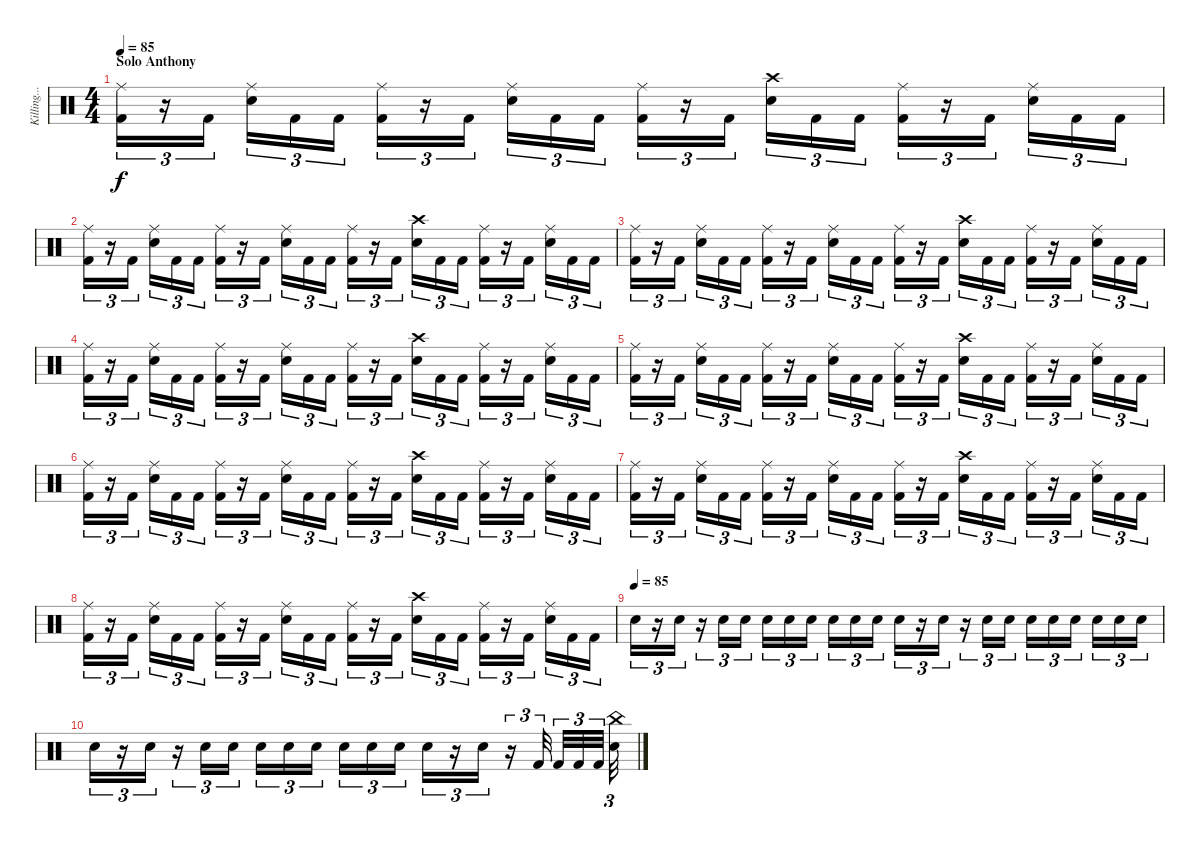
\track ("Killing.....Is His Business" "Killing...") {instrument percussion}
\staff {score}
\articulation defaults
\ts (4 4)
\section ("" "Solo Anthony")
\tempo 85
\clef neutral
\ks c
("Ride (middle)" "Kick (hit) 2").16{tu (3 2) dy f} r.16{tu (3 2)} "Kick (hit) 2".16{tu (3 2)} ("Ride (middle)" "Snare (hit) 2").16{tu (3 2)} "Kick (hit) 2".16{tu (3 2)} "Kick (hit) 2".16{tu (3 2)} ("Ride (middle)" "Kick (hit) 2").16{tu (3 2)} r.16{tu (3 2)} "Kick (hit) 2".16{tu (3 2)} ("Ride (middle)" "Snare (hit) 2").16{tu (3 2)} "Kick (hit) 2".16{tu (3 2)} "Kick (hit) 2".16{tu (3 2)} ("Ride (middle)" "Kick (hit) 2").16{tu (3 2)} r.16{tu (3 2)} "Kick (hit) 2".16{tu (3 2)} ("Crash high (hit)" "Snare (hit) 2").16{tu (3 2)} "Kick (hit) 2".16{tu (3 2)} "Kick (hit) 2".16{tu (3 2)} ("Ride (middle)" "Kick (hit) 2").16{tu (3 2)} r.16{tu (3 2)} "Kick (hit) 2".16{tu (3 2)} ("Ride (middle)" "Snare (hit) 2").16{tu (3 2)} "Kick (hit) 2".16{tu (3 2)} "Kick (hit) 2".16{tu (3 2)} |
("Ride (middle)" "Kick (hit) 2").16{tu (3 2)} r.16{tu (3 2)} "Kick (hit) 2".16{tu (3 2)} ("Ride (middle)" "Snare (hit) 2").16{tu (3 2)} "Kick (hit) 2".16{tu (3 2)} "Kick (hit) 2".16{tu (3 2)} ("Ride (middle)" "Kick (hit) 2").16{tu (3 2)} r.16{tu (3 2)} "Kick (hit) 2".16{tu (3 2)} ("Ride (middle)" "Snare (hit) 2").16{tu (3 2)} "Kick (hit) 2".16{tu (3 2)} "Kick (hit) 2".16{tu (3 2)} ("Ride (middle)" "Kick (hit) 2").16{tu (3 2)} r.16{tu (3 2)} "Kick (hit) 2".16{tu (3 2)} ("Crash high (hit)" "Snare (hit) 2").16{tu (3 2)} "Kick (hit) 2".16{tu (3 2)} "Kick (hit) 2".16{tu (3 2)} ("Ride (middle)" "Kick (hit) 2").16{tu (3 2)} r.16{tu (3 2)} "Kick (hit) 2".16{tu (3 2)} ("Ride (middle)" "Snare (hit) 2").16{tu (3 2)} "Kick (hit) 2".16{tu (3 2)} "Kick (hit) 2".16{tu (3 2)} |
("Ride (middle)" "Kick (hit) 2").16{tu (3 2)} r.16{tu (3 2)} "Kick (hit) 2".16{tu (3 2)} ("Ride (middle)" "Snare (hit) 2").16{tu (3 2)} "Kick (hit) 2".16{tu (3 2)} "Kick (hit) 2".16{tu (3 2)} ("Ride (middle)" "Kick (hit) 2").16{tu (3 2)} r.16{tu (3 2)} "Kick (hit) 2".16{tu (3 2)} ("Ride (middle)" "Snare (hit) 2").16{tu (3 2)} "Kick (hit) 2".16{tu (3 2)} "Kick (hit) 2".16{tu (3 2)} ("Ride (middle)" "Kick (hit) 2").16{tu (3 2)} r.16{tu (3 2)} "Kick (hit) 2".16{tu (3 2)} ("Crash high (hit)" "Snare (hit) 2").16{tu (3 2)} "Kick (hit) 2".16{tu (3 2)} "Kick (hit) 2".16{tu (3 2)} ("Ride (middle)" "Kick (hit) 2").16{tu (3 2)} r.16{tu (3 2)} "Kick (hit) 2".16{tu (3 2)} ("Ride (middle)" "Snare (hit) 2").16{tu (3 2)} "Kick (hit) 2".16{tu (3 2)} "Kick (hit) 2".16{tu (3 2)} |
("Ride (middle)" "Kick (hit) 2").16{tu (3 2)} r.16{tu (3 2)} "Kick (hit) 2".16{tu (3 2)} ("Ride (middle)" "Snare (hit) 2").16{tu (3 2)} "Kick (hit) 2".16{tu (3 2)} "Kick (hit) 2".16{tu (3 2)} ("Ride (middle)" "Kick (hit) 2").16{tu (3 2)} r.16{tu (3 2)} "Kick (hit) 2".16{tu (3 2)} ("Ride (middle)" "Snare (hit) 2").16{tu (3 2)} "Kick (hit) 2".16{tu (3 2)} "Kick (hit) 2".16{tu (3 2)} ("Ride (middle)" "Kick (hit) 2").16{tu (3 2)} r.16{tu (3 2)} "Kick (hit) 2".16{tu (3 2)} ("Crash high (hit)" "Snare (hit) 2").16{tu (3 2)} "Kick (hit) 2".16{tu (3 2)} "Kick (hit) 2".16{tu (3 2)} ("Ride (middle)" "Kick (hit) 2").16{tu (3 2)} r.16{tu (3 2)} "Kick (hit) 2".16{tu (3 2)} ("Ride (middle)" "Snare (hit) 2").16{tu (3 2)} "Kick (hit) 2".16{tu (3 2)} "Kick (hit) 2".16{tu (3 2)} |
("Ride (middle)" "Kick (hit) 2").16{tu (3 2)} r.16{tu (3 2)} "Kick (hit) 2".16{tu (3 2)} ("Ride (middle)" "Snare (hit) 2").16{tu (3 2)} "Kick (hit) 2".16{tu (3 2)} "Kick (hit) 2".16{tu (3 2)} ("Ride (middle)" "Kick (hit) 2").16{tu (3 2)} r.16{tu (3 2)} "Kick (hit) 2".16{tu (3 2)} ("Ride (middle)" "Snare (hit) 2").16{tu (3 2)} "Kick (hit) 2".16{tu (3 2)} "Kick (hit) 2".16{tu (3 2)} ("Ride (middle)" "Kick (hit) 2").16{tu (3 2)} r.16{tu (3 2)} "Kick (hit) 2".16{tu (3 2)} ("Crash high (hit)" "Snare (hit) 2").16{tu (3 2)} "Kick (hit) 2".16{tu (3 2)} "Kick (hit) 2".16{tu (3 2)} ("Ride (middle)" "Kick (hit) 2").16{tu (3 2)} r.16{tu (3 2)} "Kick (hit) 2".16{tu (3 2)} ("Ride (middle)" "Snare (hit) 2").16{tu (3 2)} "Kick (hit) 2".16{tu (3 2)} "Kick (hit) 2".16{tu (3 2)} |
("Ride (middle)" "Kick (hit) 2").16{tu (3 2)} r.16{tu (3 2)} "Kick (hit) 2".16{tu (3 2)} ("Ride (middle)" "Snare (hit) 2").16{tu (3 2)} "Kick (hit) 2".16{tu (3 2)} "Kick (hit) 2".16{tu (3 2)} ("Ride (middle)" "Kick (hit) 2").16{tu (3 2)} r.16{tu (3 2)} "Kick (hit) 2".16{tu (3 2)} ("Ride (middle)" "Snare (hit) 2").16{tu (3 2)} "Kick (hit) 2".16{tu (3 2)} "Kick (hit) 2".16{tu (3 2)} ("Ride (middle)" "Kick (hit) 2").16{tu (3 2)} r.16{tu (3 2)} "Kick (hit) 2".16{tu (3 2)} ("Crash high (hit)" "Snare (hit) 2").16{tu (3 2)} "Kick (hit) 2".16{tu (3 2)} "Kick (hit) 2".16{tu (3 2)} ("Ride (middle)" "Kick (hit) 2").16{tu (3 2)} r.16{tu (3 2)} "Kick (hit) 2".16{tu (3 2)} ("Ride (middle)" "Snare (hit) 2").16{tu (3 2)} "Kick (hit) 2".16{tu (3 2)} "Kick (hit) 2".16{tu (3 2)} |
("Ride (middle)" "Kick (hit) 2").16{tu (3 2)} r.16{tu (3 2)} "Kick (hit) 2".16{tu (3 2)} ("Ride (middle)" "Snare (hit) 2").16{tu (3 2)} "Kick (hit) 2".16{tu (3 2)} "Kick (hit) 2".16{tu (3 2)} ("Ride (middle)" "Kick (hit) 2").16{tu (3 2)} r.16{tu (3 2)} "Kick (hit) 2".16{tu (3 2)} ("Ride (middle)" "Snare (hit) 2").16{tu (3 2)} "Kick (hit) 2".16{tu (3 2)} "Kick (hit) 2".16{tu (3 2)} ("Ride (middle)" "Kick (hit) 2").16{tu (3 2)} r.16{tu (3 2)} "Kick (hit) 2".16{tu (3 2)} ("Crash high (hit)" "Snare (hit) 2").16{tu (3 2)} "Kick (hit) 2".16{tu (3 2)} "Kick (hit) 2".16{tu (3 2)} ("Ride (middle)" "Kick (hit) 2").16{tu (3 2)} r.16{tu (3 2)} "Kick (hit) 2".16{tu (3 2)} ("Ride (middle)" "Snare (hit) 2").16{tu (3 2)} "Kick (hit) 2".16{tu (3 2)} "Kick (hit) 2".16{tu (3 2)} |
("Ride (middle)" "Kick (hit) 2").16{tu (3 2)} r.16{tu (3 2)} "Kick (hit) 2".16{tu (3 2)} ("Ride (middle)" "Snare (hit) 2").16{tu (3 2)} "Kick (hit) 2".16{tu (3 2)} "Kick (hit) 2".16{tu (3 2)} ("Ride (middle)" "Kick (hit) 2").16{tu (3 2)} r.16{tu (3 2)} "Kick (hit) 2".16{tu (3 2)} ("Ride (middle)" "Snare (hit) 2").16{tu (3 2)} "Kick (hit) 2".16{tu (3 2)} "Kick (hit) 2".16{tu (3 2)} ("Ride (middle)" "Kick (hit) 2").16{tu (3 2)} r.16{tu (3 2)} "Kick (hit) 2".16{tu (3 2)} ("Crash high (hit)" "Snare (hit) 2").16{tu (3 2)} "Kick (hit) 2".16{tu (3 2)} "Kick (hit) 2".16{tu (3 2)} ("Ride (middle)" "Kick (hit) 2").16{tu (3 2)} r.16{tu (3 2)} "Kick (hit) 2".16{tu (3 2)} ("Ride (middle)" "Snare (hit) 2").16{tu (3 2)} "Kick (hit) 2".16{tu (3 2)} "Kick (hit) 2".16{tu (3 2)} |
\tempo (85)
"Snare (hit) 2".16{tu (3 2)} r.16{tu (3 2)} "Snare (hit) 2".16{tu (3 2)} r.16{tu (3 2)} "Snare (hit) 2".16{tu (3 2)} "Snare (hit) 2".16{tu (3 2)} "Snare (hit) 2".16{tu (3 2)} "Snare (hit) 2".16{tu (3 2)} "Snare (hit) 2".16{tu (3 2)} "Snare (hit) 2".16{tu (3 2)} "Snare (hit) 2".16{tu (3 2)} "Snare (hit) 2".16{tu (3 2)} "Snare (hit) 2".16{tu (3 2)} r.16{tu (3 2)} "Snare (hit) 2".16{tu (3 2)} r.16{tu (3 2)} "Snare (hit) 2".16{tu (3 2)} "Snare (hit) 2".16{tu (3 2)} "Snare (hit) 2".16{tu (3 2)} "Snare (hit) 2".16{tu (3 2)} "Snare (hit) 2".16{tu (3 2)} "Snare (hit) 2".16{tu (3 2)} "Snare (hit) 2".16{tu (3 2)} "Snare (hit) 2".16{tu (3 2)} |
"Snare (hit) 2".16{tu (3 2)} r.16{tu (3 2)} "Snare (hit) 2".16{tu (3 2)} r.16{tu (3 2)} "Snare (hit) 2".16{tu (3 2)} "Snare (hit) 2".16{tu (3 2)} "Snare (hit) 2".16{tu (3 2)} "Snare (hit) 2".16{tu (3 2)} "Snare (hit) 2".16{tu (3 2)} "Snare (hit) 2".16{tu (3 2)} "Snare (hit) 2".16{tu (3 2)} "Snare (hit) 2".16{tu (3 2)} "Snare (hit) 2".16{tu (3 2)} r.16{tu (3 2)} "Snare (hit) 2".16{tu (3 2)} r.16{tu (3 2)} "Kick (hit) 2".32{tu (3 2)} "Kick (hit) 2".32{tu (3 2)} "Kick (hit) 2".32{tu (3 2)} "Kick (hit) 2".32{tu (3 2)} ("China (hit)" "Snare (hit) 2").32{tu (3 2)}
